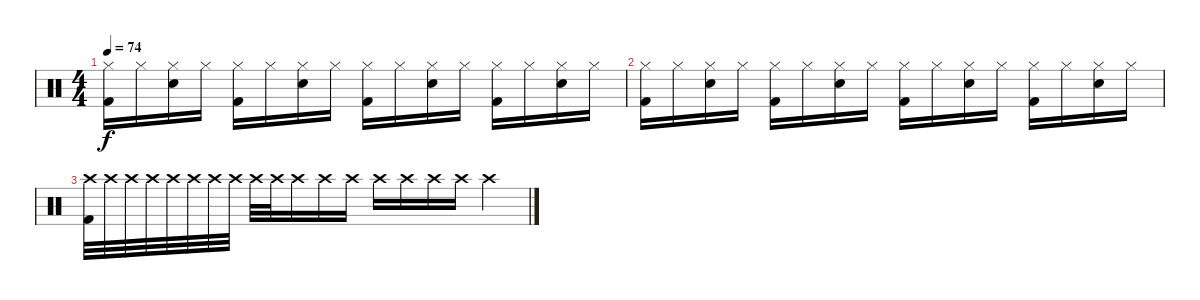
\track "" {instrument percussion}
\staff {score}
\articulation defaults
\ts (4 4)
\tempo 74
\clef neutral
\ks c
("Hi-Hat (closed)" "Kick (hit) 2").16{dy f} "Hi-Hat (closed)".16 ("Hi-Hat (closed)" "Snare (hit) 2").16 "Hi-Hat (closed)".16 ("Hi-Hat (closed)" "Kick (hit) 2").16 "Hi-Hat (closed)".16 ("Hi-Hat (closed)" "Snare (hit) 2").16 "Hi-Hat (closed)".16 ("Hi-Hat (closed)" "Kick (hit) 2").16 "Hi-Hat (closed)".16 ("Hi-Hat (closed)" "Snare (hit) 2").16 "Hi-Hat (closed)".16 ("Hi-Hat (closed)" "Kick (hit) 2").16 "Hi-Hat (closed)".16 ("Hi-Hat (closed)" "Snare (hit) 2").16 "Hi-Hat (closed)".16 |
("Hi-Hat (closed)" "Kick (hit) 2").16 "Hi-Hat (closed)".16 ("Hi-Hat (closed)" "Snare (hit) 2").16 "Hi-Hat (closed)".16 ("Hi-Hat (closed)" "Kick (hit) 2").16 "Hi-Hat (closed)".16 ("Hi-Hat (closed)" "Snare (hit) 2").16 "Hi-Hat (closed)".16 ("Hi-Hat (closed)" "Kick (hit) 2").16 "Hi-Hat (closed)".16 ("Hi-Hat (closed)" "Snare (hit) 2").16 "Hi-Hat (closed)".16 ("Hi-Hat (closed)" "Kick (hit) 2").16 "Hi-Hat (closed)".16 ("Hi-Hat (closed)" "Snare (hit) 2").16 "Hi-Hat (closed)".16 |
("Crash high (hit)" "Kick (hit) 2").32 "Crash high (hit)".32 "Crash high (hit)".32 "Crash high (hit)".32 "Crash high (hit)".32 "Crash high (hit)".32 "Crash high (hit)".32 "Crash high (hit)".32 "Crash high (hit)".32 "Crash high (hit)".32 "Crash high (hit)".16 "Crash high (hit)".16 "Crash high (hit)".16 "Crash high (hit)".16 "Crash high (hit)".16 "Crash high (hit)".16 "Crash high (hit)".16 "Crash high (hit)".4
